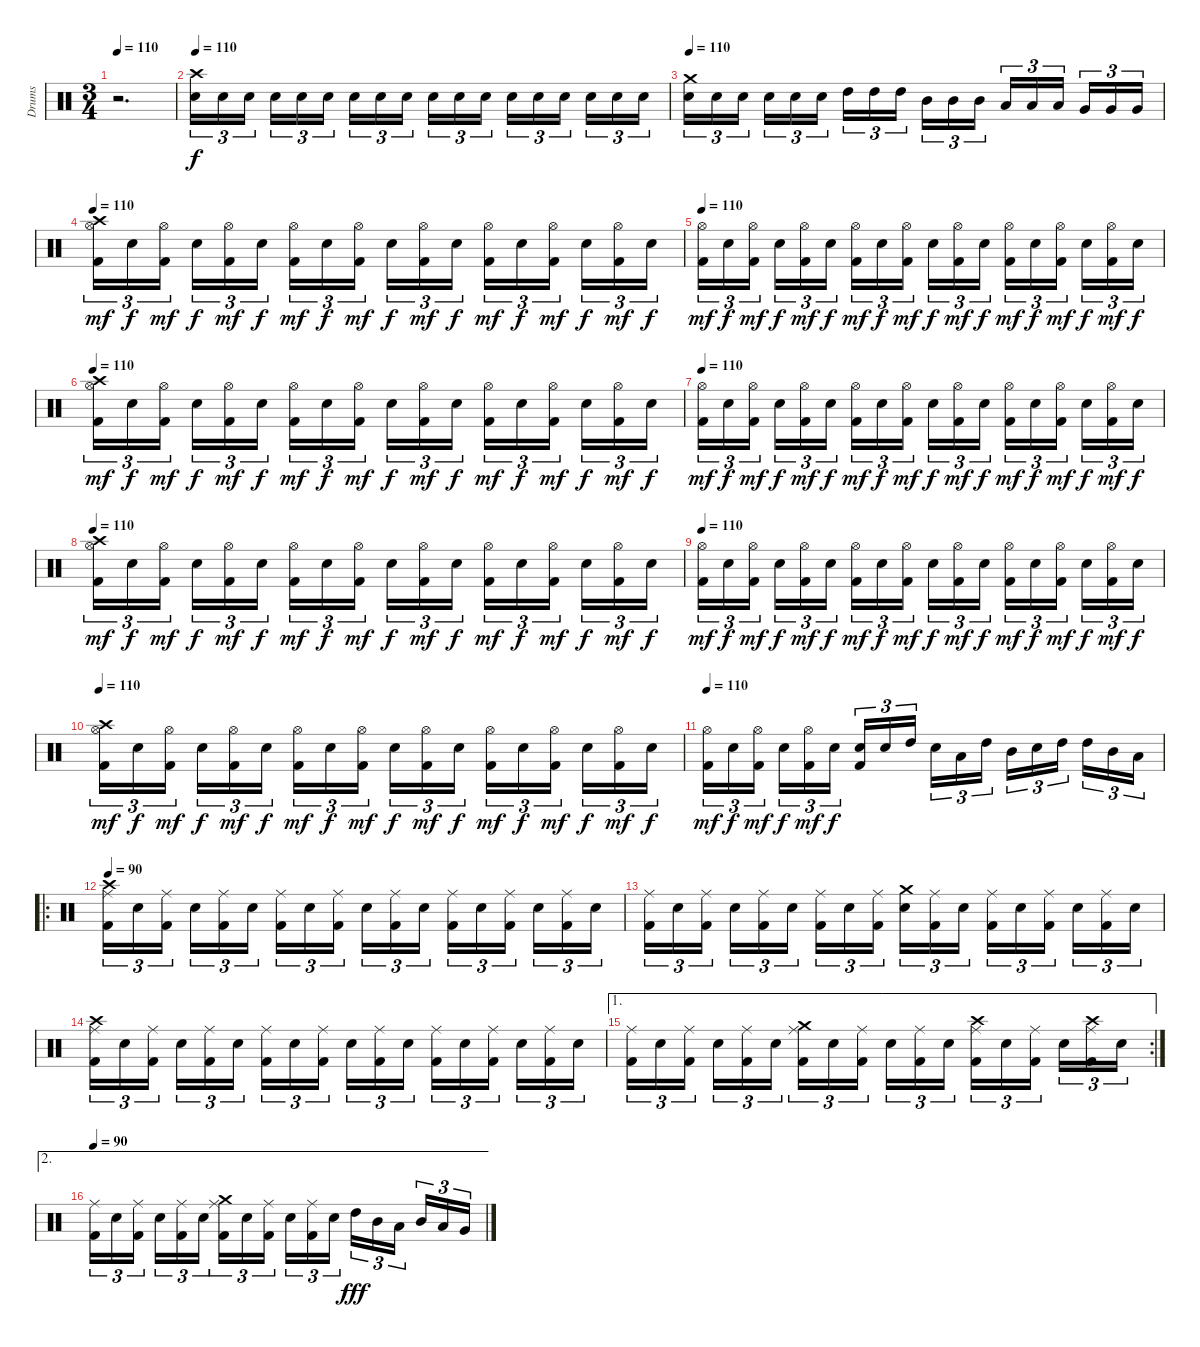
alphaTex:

\track ("Drums" "Drums") {instrument percussion}
\staff {score}
\articulation defaults
\ts (3 4)
\tempo 110
\clef neutral
\ks c
r.2{d dy f} |
\tempo 110
("Crash high (hit)" "Electric Snare (hit)").16{tu (3 2)} "Electric Snare (hit)".16{tu (3 2)} "Electric Snare (hit)".16{tu (3 2)} "Electric Snare (hit)".16{tu (3 2)} "Electric Snare (hit)".16{tu (3 2)} "Electric Snare (hit)".16{tu (3 2)} "Electric Snare (hit)".16{tu (3 2)} "Electric Snare (hit)".16{tu (3 2)} "Electric Snare (hit)".16{tu (3 2)} "Electric Snare (hit)".16{tu (3 2)} "Electric Snare (hit)".16{tu (3 2)} "Electric Snare (hit)".16{tu (3 2)} "Electric Snare (hit)".16{tu (3 2)} "Electric Snare (hit)".16{tu (3 2)} "Electric Snare (hit)".16{tu (3 2)} "Electric Snare (hit)".16{tu (3 2)} "Electric Snare (hit)".16{tu (3 2)} "Electric Snare (hit)".16{tu (3 2)} |
\tempo 110
("Crash medium (hit)" "Electric Snare (hit)").16{tu (3 2)} "Electric Snare (hit)".16{tu (3 2)} "Electric Snare (hit)".16{tu (3 2)} "Electric Snare (hit)".16{tu (3 2)} "Electric Snare (hit)".16{tu (3 2)} "Electric Snare (hit)".16{tu (3 2)} "High Tom (hit)".16{tu (3 2)} "High Tom (hit)".16{tu (3 2)} "High Tom (hit)".16{tu (3 2)} "Mid Tom (hit)".16{tu (3 2)} "Mid Tom (hit)".16{tu (3 2)} "Mid Tom (hit)".16{tu (3 2)} "Low Tom (hit)".16{tu (3 2)} "Low Tom (hit)".16{tu (3 2)} "Low Tom (hit)".16{tu (3 2)} "Very Low Tom (hit)".16{tu (3 2)} "Very Low Tom (hit)".16{tu (3 2)} "Very Low Tom (hit)".16{tu (3 2)} |
\tempo 110
("Kick (hit) 2" "Hi-Hat (open)" "Crash high (hit)").16{tu (3 2) dy mf} "Electric Snare (hit)".16{tu (3 2) dy f} ("Kick (hit) 2" "Hi-Hat (open)").16{tu (3 2) dy mf} "Electric Snare (hit)".16{tu (3 2) dy f} ("Kick (hit) 2" "Hi-Hat (open)").16{tu (3 2) dy mf} "Electric Snare (hit)".16{tu (3 2) dy f} ("Kick (hit) 2" "Hi-Hat (open)").16{tu (3 2) dy mf} "Electric Snare (hit)".16{tu (3 2) dy f} ("Kick (hit) 2" "Hi-Hat (open)").16{tu (3 2) dy mf} "Electric Snare (hit)".16{tu (3 2) dy f} ("Kick (hit) 2" "Hi-Hat (open)").16{tu (3 2) dy mf} "Electric Snare (hit)".16{tu (3 2) dy f} ("Kick (hit) 2" "Hi-Hat (open)").16{tu (3 2) dy mf} "Electric Snare (hit)".16{tu (3 2) dy f} ("Kick (hit) 2" "Hi-Hat (open)").16{tu (3 2) dy mf} "Electric Snare (hit)".16{tu (3 2) dy f} ("Kick (hit) 2" "Hi-Hat (open)").16{tu (3 2) dy mf} "Electric Snare (hit)".16{tu (3 2) dy f} |
\tempo 110
("Kick (hit) 2" "Hi-Hat (open)").16{tu (3 2) dy mf} "Electric Snare (hit)".16{tu (3 2) dy f} ("Kick (hit) 2" "Hi-Hat (open)").16{tu (3 2) dy mf} "Electric Snare (hit)".16{tu (3 2) dy f} ("Kick (hit) 2" "Hi-Hat (open)").16{tu (3 2) dy mf} "Electric Snare (hit)".16{tu (3 2) dy f} ("Kick (hit) 2" "Hi-Hat (open)").16{tu (3 2) dy mf} "Electric Snare (hit)".16{tu (3 2) dy f} ("Kick (hit) 2" "Hi-Hat (open)").16{tu (3 2) dy mf} "Electric Snare (hit)".16{tu (3 2) dy f} ("Kick (hit) 2" "Hi-Hat (open)").16{tu (3 2) dy mf} "Electric Snare (hit)".16{tu (3 2) dy f} ("Kick (hit) 2" "Hi-Hat (open)").16{tu (3 2) dy mf} "Electric Snare (hit)".16{tu (3 2) dy f} ("Kick (hit) 2" "Hi-Hat (open)").16{tu (3 2) dy mf} "Electric Snare (hit)".16{tu (3 2) dy f} ("Kick (hit) 2" "Hi-Hat (open)").16{tu (3 2) dy mf} "Electric Snare (hit)".16{tu (3 2) dy f} |
\tempo 110
("Kick (hit) 2" "Hi-Hat (open)" "Crash high (hit)").16{tu (3 2) dy mf} "Electric Snare (hit)".16{tu (3 2) dy f} ("Kick (hit) 2" "Hi-Hat (open)").16{tu (3 2) dy mf} "Electric Snare (hit)".16{tu (3 2) dy f} ("Kick (hit) 2" "Hi-Hat (open)").16{tu (3 2) dy mf} "Electric Snare (hit)".16{tu (3 2) dy f} ("Kick (hit) 2" "Hi-Hat (open)").16{tu (3 2) dy mf} "Electric Snare (hit)".16{tu (3 2) dy f} ("Kick (hit) 2" "Hi-Hat (open)").16{tu (3 2) dy mf} "Electric Snare (hit)".16{tu (3 2) dy f} ("Kick (hit) 2" "Hi-Hat (open)").16{tu (3 2) dy mf} "Electric Snare (hit)".16{tu (3 2) dy f} ("Kick (hit) 2" "Hi-Hat (open)").16{tu (3 2) dy mf} "Electric Snare (hit)".16{tu (3 2) dy f} ("Kick (hit) 2" "Hi-Hat (open)").16{tu (3 2) dy mf} "Electric Snare (hit)".16{tu (3 2) dy f} ("Kick (hit) 2" "Hi-Hat (open)").16{tu (3 2) dy mf} "Electric Snare (hit)".16{tu (3 2) dy f} |
\tempo 110
("Kick (hit) 2" "Hi-Hat (open)").16{tu (3 2) dy mf} "Electric Snare (hit)".16{tu (3 2) dy f} ("Kick (hit) 2" "Hi-Hat (open)").16{tu (3 2) dy mf} "Electric Snare (hit)".16{tu (3 2) dy f} ("Kick (hit) 2" "Hi-Hat (open)").16{tu (3 2) dy mf} "Electric Snare (hit)".16{tu (3 2) dy f} ("Kick (hit) 2" "Hi-Hat (open)").16{tu (3 2) dy mf} "Electric Snare (hit)".16{tu (3 2) dy f} ("Kick (hit) 2" "Hi-Hat (open)").16{tu (3 2) dy mf} "Electric Snare (hit)".16{tu (3 2) dy f} ("Kick (hit) 2" "Hi-Hat (open)").16{tu (3 2) dy mf} "Electric Snare (hit)".16{tu (3 2) dy f} ("Kick (hit) 2" "Hi-Hat (open)").16{tu (3 2) dy mf} "Electric Snare (hit)".16{tu (3 2) dy f} ("Kick (hit) 2" "Hi-Hat (open)").16{tu (3 2) dy mf} "Electric Snare (hit)".16{tu (3 2) dy f} ("Kick (hit) 2" "Hi-Hat (open)").16{tu (3 2) dy mf} "Electric Snare (hit)".16{tu (3 2) dy f} |
\tempo 110
("Kick (hit) 2" "Hi-Hat (open)" "Crash high (hit)").16{tu (3 2) dy mf} "Electric Snare (hit)".16{tu (3 2) dy f} ("Kick (hit) 2" "Hi-Hat (open)").16{tu (3 2) dy mf} "Electric Snare (hit)".16{tu (3 2) dy f} ("Kick (hit) 2" "Hi-Hat (open)").16{tu (3 2) dy mf} "Electric Snare (hit)".16{tu (3 2) dy f} ("Kick (hit) 2" "Hi-Hat (open)").16{tu (3 2) dy mf} "Electric Snare (hit)".16{tu (3 2) dy f} ("Kick (hit) 2" "Hi-Hat (open)").16{tu (3 2) dy mf} "Electric Snare (hit)".16{tu (3 2) dy f} ("Kick (hit) 2" "Hi-Hat (open)").16{tu (3 2) dy mf} "Electric Snare (hit)".16{tu (3 2) dy f} ("Kick (hit) 2" "Hi-Hat (open)").16{tu (3 2) dy mf} "Electric Snare (hit)".16{tu (3 2) dy f} ("Kick (hit) 2" "Hi-Hat (open)").16{tu (3 2) dy mf} "Electric Snare (hit)".16{tu (3 2) dy f} ("Kick (hit) 2" "Hi-Hat (open)").16{tu (3 2) dy mf} "Electric Snare (hit)".16{tu (3 2) dy f} |
\tempo 110
("Kick (hit) 2" "Hi-Hat (open)").16{tu (3 2) dy mf} "Electric Snare (hit)".16{tu (3 2) dy f} ("Kick (hit) 2" "Hi-Hat (open)").16{tu (3 2) dy mf} "Electric Snare (hit)".16{tu (3 2) dy f} ("Kick (hit) 2" "Hi-Hat (open)").16{tu (3 2) dy mf} "Electric Snare (hit)".16{tu (3 2) dy f} ("Kick (hit) 2" "Hi-Hat (open)").16{tu (3 2) dy mf} "Electric Snare (hit)".16{tu (3 2) dy f} ("Kick (hit) 2" "Hi-Hat (open)").16{tu (3 2) dy mf} "Electric Snare (hit)".16{tu (3 2) dy f} ("Kick (hit) 2" "Hi-Hat (open)").16{tu (3 2) dy mf} "Electric Snare (hit)".16{tu (3 2) dy f} ("Kick (hit) 2" "Hi-Hat (open)").16{tu (3 2) dy mf} "Electric Snare (hit)".16{tu (3 2) dy f} ("Kick (hit) 2" "Hi-Hat (open)").16{tu (3 2) dy mf} "Electric Snare (hit)".16{tu (3 2) dy f} ("Kick (hit) 2" "Hi-Hat (open)").16{tu (3 2) dy mf} "Electric Snare (hit)".16{tu (3 2) dy f} |
\tempo 110
("Kick (hit) 2" "Hi-Hat (open)" "Crash high (hit)").16{tu (3 2) dy mf} "Electric Snare (hit)".16{tu (3 2) dy f} ("Kick (hit) 2" "Hi-Hat (open)").16{tu (3 2) dy mf} "Electric Snare (hit)".16{tu (3 2) dy f} ("Kick (hit) 2" "Hi-Hat (open)").16{tu (3 2) dy mf} "Electric Snare (hit)".16{tu (3 2) dy f} ("Kick (hit) 2" "Hi-Hat (open)").16{tu (3 2) dy mf} "Electric Snare (hit)".16{tu (3 2) dy f} ("Kick (hit) 2" "Hi-Hat (open)").16{tu (3 2) dy mf} "Electric Snare (hit)".16{tu (3 2) dy f} ("Kick (hit) 2" "Hi-Hat (open)").16{tu (3 2) dy mf} "Electric Snare (hit)".16{tu (3 2) dy f} ("Kick (hit) 2" "Hi-Hat (open)").16{tu (3 2) dy mf} "Electric Snare (hit)".16{tu (3 2) dy f} ("Kick (hit) 2" "Hi-Hat (open)").16{tu (3 2) dy mf} "Electric Snare (hit)".16{tu (3 2) dy f} ("Kick (hit) 2" "Hi-Hat (open)").16{tu (3 2) dy mf} "Electric Snare (hit)".16{tu (3 2) dy f} |
\tempo 110
("Kick (hit) 2" "Hi-Hat (open)").16{tu (3 2) dy mf} "Electric Snare (hit)".16{tu (3 2) dy f} ("Kick (hit) 2" "Hi-Hat (open)").16{tu (3 2) dy mf} "Electric Snare (hit)".16{tu (3 2) dy f} ("Kick (hit) 2" "Hi-Hat (open)").16{tu (3 2) dy mf} "Electric Snare (hit)".16{tu (3 2) dy f} ("Kick (hit) 2" "Electric Snare (hit)").16{tu (3 2)} "Electric Snare (hit)".16{tu (3 2)} "High Tom (hit)".16{tu (3 2)} "Electric Snare (hit)".16{tu (3 2)} "Low Tom (hit)".16{tu (3 2)} "High Tom (hit)".16{tu (3 2)} "Mid Tom (hit)".16{tu (3 2)} "Electric Snare (hit)".16{tu (3 2)} "High Tom (hit)".16{tu (3 2)} "High Tom (hit)".16{tu (3 2)} "Mid Tom (hit)".16{tu (3 2)} "Low Tom (hit)".16{tu (3 2)} |
\ro
\tempo 90
("Crash high (hit)" "Kick (hit) 2" "Ride (middle)").16{tu (3 2) volume 13} "Electric Snare (hit)".16{tu (3 2)} ("Kick (hit) 2" "Ride (middle)").16{tu (3 2)} "Electric Snare (hit)".16{tu (3 2)} ("Kick (hit) 2" "Ride (middle)").16{tu (3 2)} "Electric Snare (hit)".16{tu (3 2)} ("Kick (hit) 2" "Ride (middle)").16{tu (3 2)} "Electric Snare (hit)".16{tu (3 2)} ("Kick (hit) 2" "Ride (middle)").16{tu (3 2)} "Electric Snare (hit)".16{tu (3 2)} ("Kick (hit) 2" "Ride (middle)").16{tu (3 2)} "Electric Snare (hit)".16{tu (3 2)} ("Kick (hit) 2" "Ride (middle)").16{tu (3 2)} "Electric Snare (hit)".16{tu (3 2)} ("Kick (hit) 2" "Ride (middle)").16{tu (3 2)} "Electric Snare (hit)".16{tu (3 2)} ("Kick (hit) 2" "Ride (middle)").16{tu (3 2)} "Electric Snare (hit)".16{tu (3 2)} |
("Kick (hit) 2" "Ride (middle)").16{tu (3 2)} "Electric Snare (hit)".16{tu (3 2)} ("Kick (hit) 2" "Ride (middle)").16{tu (3 2)} "Electric Snare (hit)".16{tu (3 2)} ("Kick (hit) 2" "Ride (middle)").16{tu (3 2)} "Electric Snare (hit)".16{tu (3 2)} ("Kick (hit) 2" "Ride (middle)").16{tu (3 2)} "Electric Snare (hit)".16{tu (3 2)} ("Kick (hit) 2" "Ride (middle)").16{tu (3 2)} ("Crash medium (hit)" "Electric Snare (hit)").16{tu (3 2)} ("Kick (hit) 2" "Ride (middle)").16{tu (3 2)} "Electric Snare (hit)".16{tu (3 2)} ("Kick (hit) 2" "Ride (middle)").16{tu (3 2)} "Electric Snare (hit)".16{tu (3 2)} ("Kick (hit) 2" "Ride (middle)").16{tu (3 2)} "Electric Snare (hit)".16{tu (3 2)} ("Kick (hit) 2" "Ride (middle)").16{tu (3 2)} "Electric Snare (hit)".16{tu (3 2)} |
("Crash high (hit)" "Kick (hit) 2" "Ride (middle)").16{tu (3 2)} "Electric Snare (hit)".16{tu (3 2)} ("Kick (hit) 2" "Ride (middle)").16{tu (3 2)} "Electric Snare (hit)".16{tu (3 2)} ("Kick (hit) 2" "Ride (middle)").16{tu (3 2)} "Electric Snare (hit)".16{tu (3 2)} ("Kick (hit) 2" "Ride (middle)").16{tu (3 2)} "Electric Snare (hit)".16{tu (3 2)} ("Kick (hit) 2" "Ride (middle)").16{tu (3 2)} "Electric Snare (hit)".16{tu (3 2)} ("Kick (hit) 2" "Ride (middle)").16{tu (3 2)} "Electric Snare (hit)".16{tu (3 2)} ("Kick (hit) 2" "Ride (middle)").16{tu (3 2)} "Electric Snare (hit)".16{tu (3 2)} ("Kick (hit) 2" "Ride (middle)").16{tu (3 2)} "Electric Snare (hit)".16{tu (3 2)} ("Kick (hit) 2" "Ride (middle)").16{tu (3 2)} "Electric Snare (hit)".16{tu (3 2)} |
\ae 1
\rc 2
("Kick (hit) 2" "Ride (middle)").16{tu (3 2)} "Electric Snare (hit)".16{tu (3 2)} ("Kick (hit) 2" "Ride (middle)").16{tu (3 2)} "Electric Snare (hit)".16{tu (3 2)} ("Kick (hit) 2" "Ride (middle)").16{tu (3 2)} "Electric Snare (hit)".16{tu (3 2)} ("Crash medium (hit)" "Kick (hit) 2" "Ride (middle)").16{tu (3 2)} "Electric Snare (hit)".16{tu (3 2)} ("Kick (hit) 2" "Ride (middle)").16{tu (3 2)} "Electric Snare (hit)".16{tu (3 2)} ("Kick (hit) 2" "Ride (middle)").16{tu (3 2)} "Electric Snare (hit)".16{tu (3 2)} ("Crash high (hit)" "Kick (hit) 2" "Ride (middle)").16{tu (3 2)} "Electric Snare (hit)".16{tu (3 2)} ("Kick (hit) 2" "Ride (middle)").16{tu (3 2)} "Electric Snare (hit)".16{tu (3 2)} ("Crash high (hit)" "Kick (hit) 2" "Ride (middle)").16{tu (3 2)} "Electric Snare (hit)".16{tu (3 2)} |
\ae 2
\tempo 90
("Kick (hit) 2" "Ride (middle)").16{tu (3 2)} "Electric Snare (hit)".16{tu (3 2)} ("Kick (hit) 2" "Ride (middle)").16{tu (3 2)} "Electric Snare (hit)".16{tu (3 2)} ("Kick (hit) 2" "Ride (middle)").16{tu (3 2)} "Electric Snare (hit)".16{tu (3 2)} ("Crash medium (hit)" "Kick (hit) 2" "Ride (middle)").16{tu (3 2)} "Electric Snare (hit)".16{tu (3 2)} ("Kick (hit) 2" "Ride (middle)").16{tu (3 2)} "Electric Snare (hit)".16{tu (3 2)} ("Kick (hit) 2" "Ride (middle)").16{tu (3 2)} "Electric Snare (hit)".16{tu (3 2)} "High Tom (hit)".16{tu (3 2) dy fff} "Mid Tom (hit)".16{tu (3 2)} "Low Tom (hit)".16{tu (3 2)} "Mid Tom (hit)".16{tu (3 2)} "Low Tom (hit)".16{tu (3 2)} "Very Low Tom (hit)".16{tu (3 2)}
